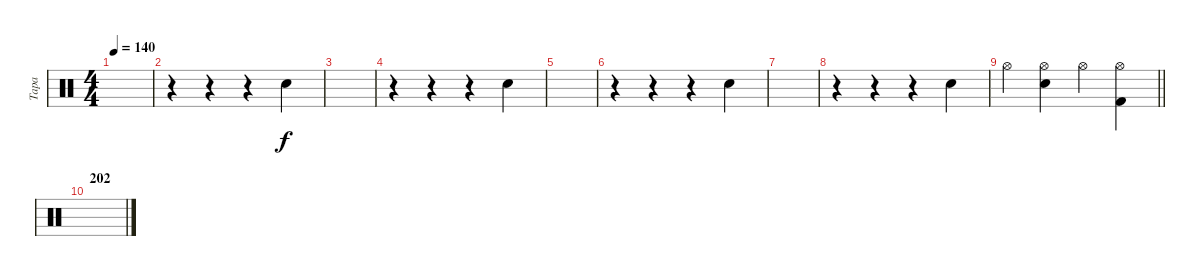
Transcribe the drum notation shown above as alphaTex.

\track ("Tapa" "Tapa") {instrument percussion}
\staff {score}
\articulation defaults
\ts (4 4)
\tempo 140
\clef neutral
\ks c
|
r.4 r.4 r.4 "Snare (hit) 2".4 |
|
r.4 r.4 r.4 "Snare (hit) 2".4 |
|
r.4 r.4 r.4 "Snare (hit) 2".4 |
|
r.4 r.4 r.4 "Snare (hit) 2".4 |
\barLineRight lightlight "Hi-Hat (open)".4
("Hi-Hat (open)" "Snare (hit) 2").4 "Hi-Hat (open)".4 ("Hi-Hat (open)" "Kick (hit) 2").4 |
\section ("" "202")
